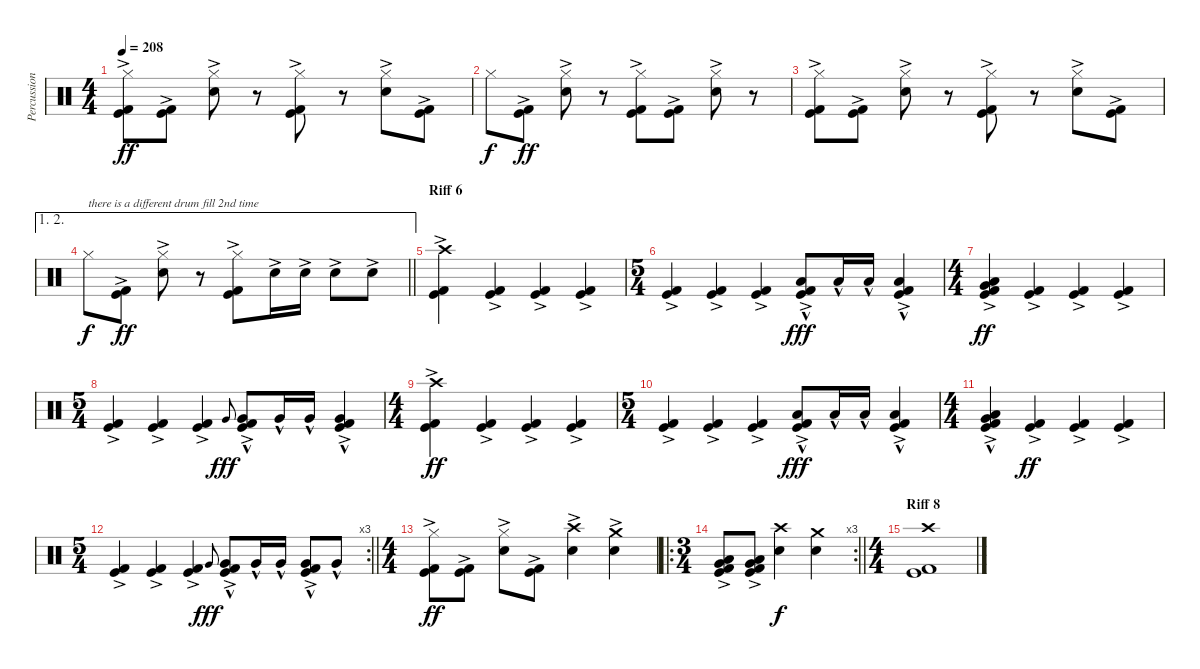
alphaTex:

\track ("Percussion" "Percussion") {instrument percussion}
\staff {score}
\articulation defaults
\ts (4 4)
\tempo 208
\clef neutral
\ks c
("Kick (hit)"{ac} "Kick (hit) 2"{ac} "Hi-Hat (closed)").8{dy ff} ("Kick (hit)"{ac} "Kick (hit) 2"{ac}).8 ("Snare (hit) 2"{ac} "Hi-Hat (closed)").8 r.8 ("Kick (hit)"{ac} "Kick (hit) 2"{ac} "Hi-Hat (closed)").8 r.8 ("Snare (hit) 2"{ac} "Hi-Hat (closed)").8 ("Kick (hit)"{ac} "Kick (hit) 2"{ac}).8 |
"Hi-Hat (closed)".8{dy f} ("Kick (hit)"{ac} "Kick (hit) 2"{ac}).8{dy ff} ("Snare (hit) 2"{ac} "Hi-Hat (closed)").8 r.8 ("Kick (hit) 2"{ac} "Kick (hit)"{ac} "Hi-Hat (closed)").8 ("Kick (hit) 2"{ac} "Kick (hit)"{ac}).8 ("Snare (hit) 2"{ac} "Hi-Hat (closed)").8 r.8 |
("Kick (hit)"{ac} "Kick (hit) 2"{ac} "Hi-Hat (closed)").8 ("Kick (hit)"{ac} "Kick (hit) 2"{ac}).8 ("Snare (hit) 2"{ac} "Hi-Hat (closed)").8 r.8 ("Kick (hit)"{ac} "Kick (hit) 2"{ac} "Hi-Hat (closed)").8 r.8 ("Snare (hit) 2"{ac} "Hi-Hat (closed)").8 ("Kick (hit)"{ac} "Kick (hit) 2"{ac}).8 |
\ae (1 2)
\barLineRight lightlight "Hi-Hat (closed)".8{txt "there is a different drum fill 2nd time" dy f}
("Kick (hit)"{ac} "Kick (hit) 2"{ac}).8{dy ff} ("Snare (hit) 2"{ac} "Hi-Hat (closed)").8 r.8 ("Kick (hit) 2"{ac} "Kick (hit)"{ac} "Hi-Hat (closed)").8 "Snare (hit) 2"{ac}.16 "Snare (hit) 2"{ac}.16 "Snare (hit) 2"{ac}.8 "Snare (hit) 2"{ac}.8 |
\section ("" "Riff 6")
("Kick (hit) 2"{ac} "Kick (hit)"{ac} "Crash high (hit)").4 ("Kick (hit) 2"{ac} "Kick (hit)"{ac}).4 ("Kick (hit) 2"{ac} "Kick (hit)"{ac}).4 ("Kick (hit) 2"{ac} "Kick (hit)"{ac}).4 |
\ts (5 4)
("Kick (hit) 2"{ac} "Kick (hit)"{ac}).4 ("Kick (hit) 2"{ac} "Kick (hit)"{ac}).4 ("Kick (hit) 2"{ac} "Kick (hit)").4 ("Kick (hit) 2"{ac} "Kick (hit)" "Low Floor Tom (hit)"{hac}).8{dy fff} "Low Floor Tom (hit)"{hac}.16 "Low Floor Tom (hit)"{hac}.16 ("Kick (hit) 2"{ac} "Kick (hit)"{ac} "Low Floor Tom (hit)"{hac}).4 |
\ts (4 4)
("Kick (hit) 2"{ac} "Kick (hit)"{ac} "Very Low Tom (hit)"{ac} "Low Floor Tom (hit)"{ac}).4{dy ff} ("Kick (hit) 2"{ac} "Kick (hit)"{ac}).4 ("Kick (hit) 2"{ac} "Kick (hit)"{ac}).4 ("Kick (hit) 2"{ac} "Kick (hit)"{ac}).4 |
\ts (5 4)
("Kick (hit) 2"{ac} "Kick (hit)"{ac}).4 ("Kick (hit) 2"{ac} "Kick (hit)"{ac}).4 ("Kick (hit) 2"{ac} "Kick (hit)").4 "Very Low Tom (hit)".8{gr onbeat dy fff} ("Kick (hit) 2"{ac} "Kick (hit)" "Very Low Tom (hit)"{hac}).8 "Very Low Tom (hit)"{hac}.16 "Very Low Tom (hit)"{hac}.16 ("Kick (hit) 2"{ac} "Kick (hit)"{ac} "Very Low Tom (hit)"{hac}).4 |
\ts (4 4)
("Kick (hit) 2"{ac} "Kick (hit)"{ac} "Crash high (hit)").4{dy ff} ("Kick (hit) 2"{ac} "Kick (hit)"{ac}).4 ("Kick (hit) 2"{ac} "Kick (hit)"{ac}).4 ("Kick (hit) 2"{ac} "Kick (hit)"{ac}).4 |
\ts (5 4)
("Kick (hit) 2"{ac} "Kick (hit)"{ac}).4 ("Kick (hit) 2"{ac} "Kick (hit)"{ac}).4 ("Kick (hit) 2"{ac} "Kick (hit)").4 ("Kick (hit) 2"{ac} "Kick (hit)" "Low Floor Tom (hit)"{hac}).8{dy fff} "Low Floor Tom (hit)"{hac}.16 "Low Floor Tom (hit)"{hac}.16 ("Kick (hit) 2"{ac} "Kick (hit)"{ac} "Low Floor Tom (hit)"{hac}).4 |
\ts (4 4)
("Kick (hit) 2"{ac} "Kick (hit)"{ac} "Very Low Tom (hit)"{ac} "Low Floor Tom (hit)"{hac}).4 ("Kick (hit) 2"{ac} "Kick (hit)"{ac}).4{dy ff} ("Kick (hit) 2"{ac} "Kick (hit)"{ac}).4 ("Kick (hit) 2"{ac} "Kick (hit)"{ac}).4 |
\rc 3
\ts (5 4)
\barLineRight lightlight
("Kick (hit) 2"{ac} "Kick (hit)"{ac}).4 ("Kick (hit) 2"{ac} "Kick (hit)"{ac}).4 ("Kick (hit) 2"{ac} "Kick (hit)").4 "Very Low Tom (hit)".8{gr onbeat dy fff} ("Kick (hit) 2"{ac} "Kick (hit)" "Very Low Tom (hit)"{hac}).8 "Very Low Tom (hit)"{hac}.16 "Very Low Tom (hit)"{hac}.16 ("Kick (hit) 2"{ac} "Kick (hit)"{ac} "Very Low Tom (hit)"{hac}).8 "Very Low Tom (hit)"{hac}.8 |
\ts (4 4)
\section ("" "")
("Kick (hit)"{ac} "Kick (hit) 2"{ac} "Hi-Hat (closed)").8{dy ff} ("Kick (hit)"{ac} "Kick (hit) 2"{ac}).8 ("Snare (hit) 2"{ac} "Hi-Hat (closed)").8 ("Kick (hit)"{ac} "Kick (hit) 2"{ac}).8 ("Snare (hit) 2"{ac} "Crash high (hit)").4 ("Snare (hit) 2"{ac} "Crash medium (hit)").4 |
\ro
\rc 3
\ts (3 4)
\barLineRight lightlight
("Kick (hit)"{ac} "Low Floor Tom (hit)"{ac} "Very Low Tom (hit)"{ac} "Kick (hit) 2").8 ("Kick (hit)"{ac} "Low Floor Tom (hit)"{ac} "Very Low Tom (hit)"{ac} "Kick (hit) 2").8 ("Snare (hit) 2" "Crash high (hit)").4{dy f} ("Snare (hit) 2" "Crash medium (hit)").4 |
\ts (4 4)
\section ("" "Riff 8")
("Kick (hit) 2" "Kick (hit)" "Crash high (hit)").1
